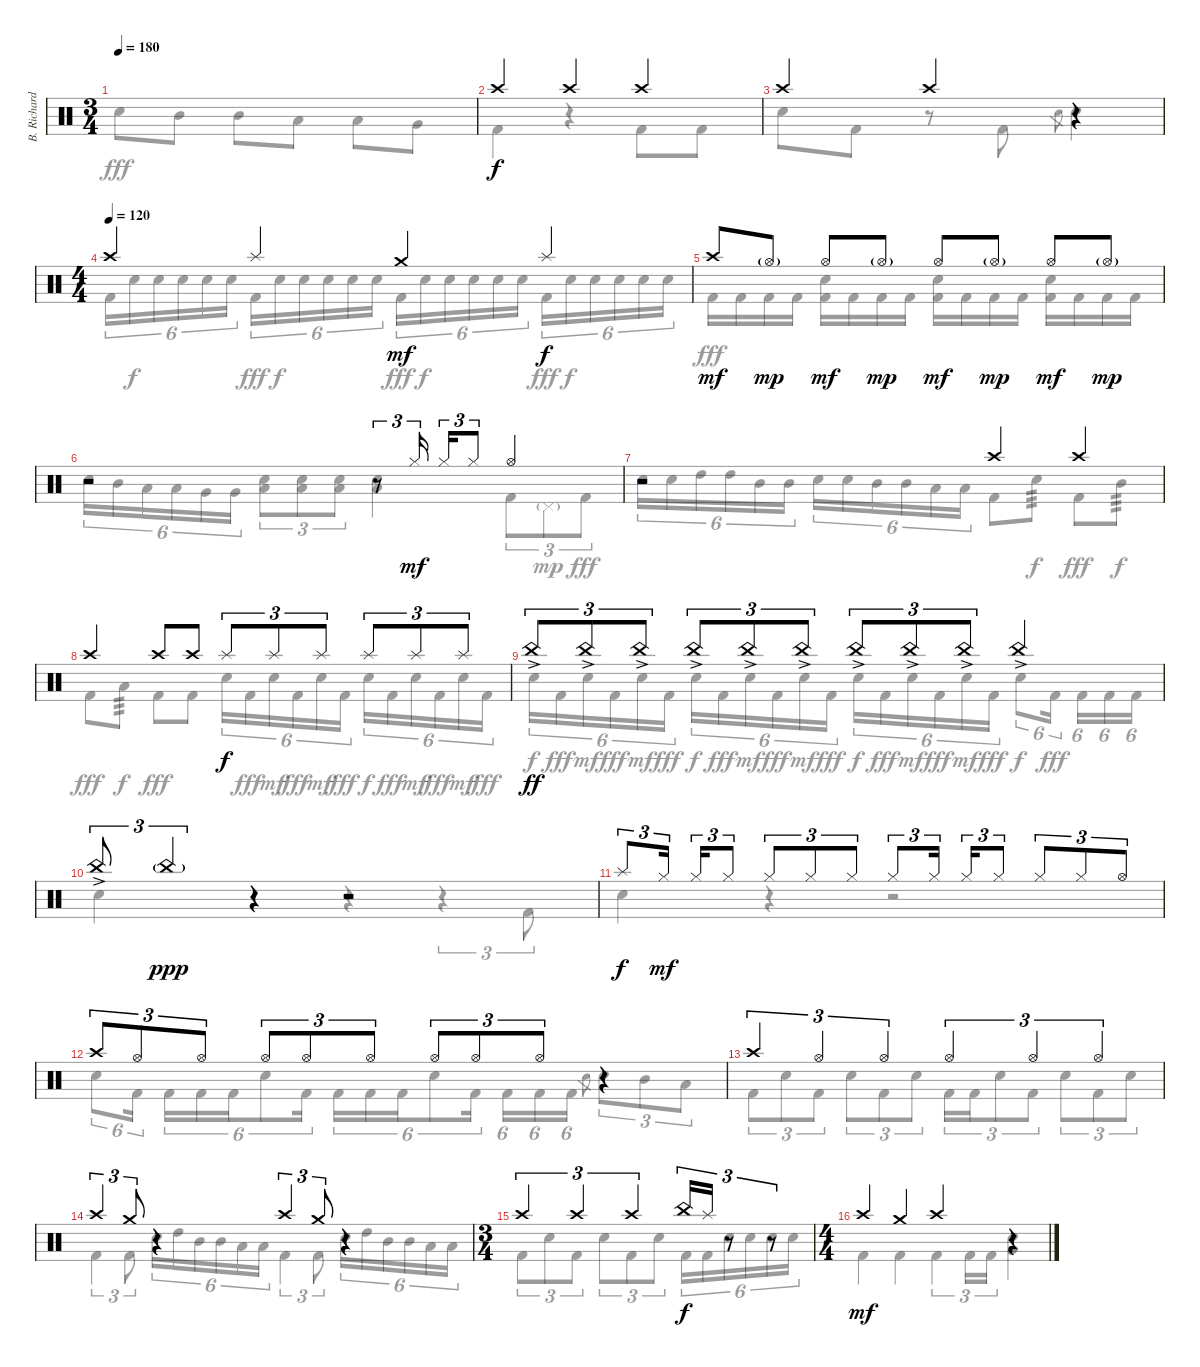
\track ("B. Richardson Drums" "B. Richard") {instrument percussion}
\staff {score}
\articulation defaults
\voice
\ts (3 4)
\tempo 180
\clef neutral
\ks c
|
"Crash high (hit)".4 "Crash high (hit)".4 "Crash high (hit)".4 |
"Crash high (hit)".4 "Crash high (hit)".4 r.4 |
\ts (4 4)
\tempo (120)
"Crash high (hit)".4 "Splash (hit)".4{dy f} "Crash medium (hit)".4{dy mf} "Splash (hit)".4{dy f} |
"Crash high (hit)".8{dy mf} "Hi-Hat (open)"{g}.8{dy mp} "Hi-Hat (open)".8{dy mf} "Hi-Hat (open)"{g}.8{dy mp} "Hi-Hat (open)".8{dy mf} "Hi-Hat (open)"{g}.8{dy mp} "Hi-Hat (open)".8{dy mf} "Hi-Hat (open)"{g}.8{dy mp} |
r.2 r.8{tu (3 2)} "Hi-Hat (closed)".16{tu (3 2) dy mf} "Hi-Hat (closed)".16{tu (3 2)} "Hi-Hat (closed)".8{tu (3 2)} "Hi-Hat (open)".4 |
r.2 "Crash high (hit)".4 "Crash high (hit)".4 |
"Crash high (hit)".4 "Crash high (hit)".8 "Crash high (hit)".8 "Splash (hit)".8{tu (3 2) dy f} "Splash (hit)".8{tu (3 2)} "Splash (hit)".8{tu (3 2)} "Splash (hit)".8{tu (3 2)} "Splash (hit)".8{tu (3 2)} "Splash (hit)".8{tu (3 2)} |
"China (hit)"{ac}.8{tu (3 2) dy ff} "China (hit)"{ac}.8{tu (3 2)} "China (hit)"{ac}.8{tu (3 2)} "China (hit)"{ac}.8{tu (3 2)} "China (hit)"{ac}.8{tu (3 2)} "China (hit)"{ac}.8{tu (3 2)} "China (hit)"{ac}.8{tu (3 2)} "China (hit)"{ac}.8{tu (3 2)} "China (hit)"{ac}.8{tu (3 2)} "China (hit)"{ac}.4 |
"China (hit)"{ac}.8{tu (3 2)} "China (hit)"{g}.4{tu (3 2) dy ppp} r.4 r.2 |
"Splash (hit)".8{tu (3 2) dy f} "Hi-Hat (closed)".16{tu (3 2) dy mf} "Hi-Hat (closed)".16{tu (3 2)} "Hi-Hat (closed)".8{tu (3 2)} "Hi-Hat (closed)".8{tu (3 2)} "Hi-Hat (closed)".8{tu (3 2)} "Hi-Hat (closed)".8{tu (3 2)} "Hi-Hat (closed)".8{tu (3 2)} "Hi-Hat (closed)".16{tu (3 2)} "Hi-Hat (closed)".16{tu (3 2)} "Hi-Hat (closed)".8{tu (3 2)} "Hi-Hat (closed)".8{tu (3 2)} "Hi-Hat (closed)".8{tu (3 2)} "Hi-Hat (open)".8{tu (3 2)} |
"Crash high (hit)".8{tu (3 2)} "Hi-Hat (open)".8{tu (3 2)} "Hi-Hat (open)".8{tu (3 2)} "Hi-Hat (open)".8{tu (3 2)} "Hi-Hat (open)".8{tu (3 2)} "Hi-Hat (open)".8{tu (3 2)} "Hi-Hat (open)".8{tu (3 2)} "Hi-Hat (open)".8{tu (3 2)} "Hi-Hat (open)".8{tu (3 2)} r.4 |
"Crash high (hit)".4{tu (3 2)} "Hi-Hat (open)".4{tu (3 2)} "Hi-Hat (open)".4{tu (3 2)} "Hi-Hat (open)".4{tu (3 2)} "Hi-Hat (open)".4{tu (3 2)} "Hi-Hat (open)".4{tu (3 2)} |
"Crash high (hit)".4{tu (3 2)} "Crash medium (hit)".8{tu (3 2)} r.4 "Crash high (hit)".4{tu (3 2)} "Crash medium (hit)".8{tu (3 2)} r.4 |
\ts (3 4)
"Crash high (hit)".4{tu (3 2)} "Crash high (hit)".4{tu (3 2)} "Crash high (hit)".4{tu (3 2)} "China (hit)".16{tu (3 2) dy f} "Splash (hit)".16{tu (3 2)} r.8{tu (3 2)} r.8{tu (3 2)} |
\ts (4 4)
"Crash high (hit)".4{dy mf} "Crash medium (hit)".4 "Crash high (hit)".4 r.4
\voice
\clef neutral
\ottava regular
\simile none
\ks c "Electric Snare (hit)".8{dy fff} "Mid Tom (hit)".8 "Mid Tom (hit)".8 "Low Tom (hit)".8 "Low Tom (hit)".8 "Very Low Tom (hit)".8
|
"Kick (hit) 2".4 r.4 "Kick (hit) 2".8 "Kick (hit) 2".8 |
"Electric Snare (hit)".8 "Kick (hit) 2".8 r.8 "Kick (hit) 2".8 "Electric Snare (hit)".8{gr} "Electric Snare (hit)".4 |
"Kick (hit) 2".16{tu (6 4)} "Electric Snare (hit)".16{tu (6 4) dy f} "Electric Snare (hit)".16{tu (6 4)} "Electric Snare (hit)".16{tu (6 4)} "Electric Snare (hit)".16{tu (6 4)} "Electric Snare (hit)".16{tu (6 4)} "Kick (hit) 2".16{tu (6 4) dy fff} "Electric Snare (hit)".16{tu (6 4) dy f} "Electric Snare (hit)".16{tu (6 4)} "Electric Snare (hit)".16{tu (6 4)} "Electric Snare (hit)".16{tu (6 4)} "Electric Snare (hit)".16{tu (6 4)} "Kick (hit) 2".16{tu (6 4) dy fff} "Electric Snare (hit)".16{tu (6 4) dy f} "Electric Snare (hit)".16{tu (6 4)} "Electric Snare (hit)".16{tu (6 4)} "Electric Snare (hit)".16{tu (6 4)} "Electric Snare (hit)".16{tu (6 4)} "Kick (hit) 2".16{tu (6 4) dy fff} "Electric Snare (hit)".16{tu (6 4) dy f} "Electric Snare (hit)".16{tu (6 4)} "Electric Snare (hit)".16{tu (6 4)} "Electric Snare (hit)".16{tu (6 4)} "Electric Snare (hit)".16{tu (6 4)} |
"Kick (hit) 2".16{dy fff} "Kick (hit) 2".16 "Kick (hit) 2".16 "Kick (hit) 2".16 ("Electric Snare (hit)" "Kick (hit) 2").16 "Kick (hit) 2".16 "Kick (hit) 2".16 "Kick (hit) 2".16 ("Electric Snare (hit)" "Kick (hit) 2").16 "Kick (hit) 2".16 "Kick (hit) 2".16 "Kick (hit) 2".16 ("Electric Snare (hit)" "Kick (hit) 2").16 "Kick (hit) 2".16 "Kick (hit) 2".16 "Kick (hit) 2".16 |
"Electric Snare (hit)".16{tu (6 4)} "Mid Tom (hit)".16{tu (6 4)} "Low Tom (hit)".16{tu (6 4)} "Low Tom (hit)".16{tu (6 4)} "Very Low Tom (hit)".16{tu (6 4)} "Very Low Tom (hit)".16{tu (6 4)} ("Electric Snare (hit)" "Low Tom (hit)").8{tu (3 2)} ("Electric Snare (hit)" "Low Tom (hit)").8{tu (3 2)} ("Electric Snare (hit)" "Low Tom (hit)").8{tu (3 2)} ("Electric Snare (hit)" "Low Tom (hit)").4 "Kick (hit) 2".8{tu (3 2)} "Pedal Hi-Hat (hit)"{g}.8{tu (3 2) dy mp} "Kick (hit) 2".8{tu (3 2) dy fff} |
"Electric Snare (hit)".16{tu (6 4)} "Electric Snare (hit)".16{tu (6 4)} "High Tom (hit)".16{tu (6 4)} "High Tom (hit)".16{tu (6 4)} "Mid Tom (hit)".16{tu (6 4)} "Mid Tom (hit)".16{tu (6 4)} "Electric Snare (hit)".16{tu (6 4)} "Electric Snare (hit)".16{tu (6 4)} "Mid Tom (hit)".16{tu (6 4)} "Mid Tom (hit)".16{tu (6 4)} "Low Tom (hit)".16{tu (6 4)} "Low Tom (hit)".16{tu (6 4)} "Kick (hit) 2".8 "Electric Snare (hit)".8{tp 3 dy f} "Kick (hit) 2".8{dy fff} "Mid Tom (hit)".8{tp 3 dy f} |
"Kick (hit) 2".8{dy fff} "Low Tom (hit)".8{tp 3 dy f} "Kick (hit) 2".8{dy fff} "Kick (hit) 2".8 "Electric Snare (hit)".16{tu (6 4) dy f} "Kick (hit) 2".16{tu (6 4) dy fff} "Electric Snare (hit)".16{tu (6 4) dy mf} "Kick (hit) 2".16{tu (6 4) dy fff} "Electric Snare (hit)".16{tu (6 4) dy mf} "Kick (hit) 2".16{tu (6 4) dy fff} "Electric Snare (hit)".16{tu (6 4) dy f} "Kick (hit) 2".16{tu (6 4) dy fff} "Electric Snare (hit)".16{tu (6 4) dy mf} "Kick (hit) 2".16{tu (6 4) dy fff} "Electric Snare (hit)".16{tu (6 4) dy mf} "Kick (hit) 2".16{tu (6 4) dy fff} |
"Electric Snare (hit)".16{tu (6 4) dy f} "Kick (hit) 2".16{tu (6 4) dy fff} "Electric Snare (hit)".16{tu (6 4) dy mf} "Kick (hit) 2".16{tu (6 4) dy fff} "Electric Snare (hit)".16{tu (6 4) dy mf} "Kick (hit) 2".16{tu (6 4) dy fff} "Electric Snare (hit)".16{tu (6 4) dy f} "Kick (hit) 2".16{tu (6 4) dy fff} "Electric Snare (hit)".16{tu (6 4) dy mf} "Kick (hit) 2".16{tu (6 4) dy fff} "Electric Snare (hit)".16{tu (6 4) dy mf} "Kick (hit) 2".16{tu (6 4) dy fff} "Electric Snare (hit)".16{tu (6 4) dy f} "Kick (hit) 2".16{tu (6 4) dy fff} "Electric Snare (hit)".16{tu (6 4) dy mf} "Kick (hit) 2".16{tu (6 4) dy fff} "Electric Snare (hit)".16{tu (6 4) dy mf} "Kick (hit) 2".16{tu (6 4) dy fff} "Electric Snare (hit)".8{tu (6 4) dy f} "Kick (hit) 2".16{tu (6 4) dy fff} "Kick (hit) 2".16{tu (6 4)} "Kick (hit) 2".16{tu (6 4)} "Kick (hit) 2".16{tu (6 4)} |
"Electric Snare (hit)".4 r.4 r.4 r.4{tu (3 2)} "Kick (hit) 2".8{tu (3 2)} |
"Electric Snare (hit)".4 r.4 r.2 |
"Electric Snare (hit)".8{tu (6 4)} "Kick (hit) 2".16{tu (6 4)} "Kick (hit) 2".16{tu (6 4)} "Kick (hit) 2".16{tu (6 4)} "Kick (hit) 2".16{tu (6 4)} "Electric Snare (hit)".8{tu (6 4)} "Kick (hit) 2".16{tu (6 4)} "Kick (hit) 2".16{tu (6 4)} "Kick (hit) 2".16{tu (6 4)} "Kick (hit) 2".16{tu (6 4)} "Electric Snare (hit)".8{tu (6 4)} "Kick (hit) 2".16{tu (6 4)} "Kick (hit) 2".16{tu (6 4)} "Kick (hit) 2".16{tu (6 4)} "Kick (hit) 2".16{tu (6 4)} "Electric Snare (hit)".8{gr} "Electric Snare (hit)".8{tu (3 2)} "Mid Tom (hit)".8{tu (3 2)} "Low Tom (hit)".8{tu (3 2)} |
"Kick (hit) 2".8{tu (3 2)} "Electric Snare (hit)".8{tu (3 2)} "Kick (hit) 2".8{tu (3 2)} "Electric Snare (hit)".8{tu (3 2)} "Kick (hit) 2".8{tu (3 2)} "Electric Snare (hit)".8{tu (3 2)} "Kick (hit) 2".16{tu (3 2)} "Kick (hit) 2".16{tu (3 2)} "Electric Snare (hit)".8{tu (3 2)} "Kick (hit) 2".8{tu (3 2)} "Electric Snare (hit)".8{tu (3 2)} "Kick (hit) 2".8{tu (3 2)} "Electric Snare (hit)".8{tu (3 2)} |
"Kick (hit) 2".4{tu (3 2)} "Kick (hit) 2".8{tu (3 2)} "Electric Snare (hit)".16{tu (6 4)} "High Tom (hit)".16{tu (6 4)} "Mid Tom (hit)".16{tu (6 4)} "Mid Tom (hit)".16{tu (6 4)} "Low Tom (hit)".16{tu (6 4)} "Low Tom (hit)".16{tu (6 4)} "Kick (hit) 2".4{tu (3 2)} "Kick (hit) 2".8{tu (3 2)} "Electric Snare (hit)".16{tu (6 4)} "High Tom (hit)".16{tu (6 4)} "Mid Tom (hit)".16{tu (6 4)} "Mid Tom (hit)".16{tu (6 4)} "Low Tom (hit)".16{tu (6 4)} "Low Tom (hit)".16{tu (6 4)} |
"Kick (hit) 2".8{tu (3 2)} "Electric Snare (hit)".8{tu (3 2)} "Kick (hit) 2".8{tu (3 2)} "Electric Snare (hit)".8{tu (3 2)} "Kick (hit) 2".8{tu (3 2)} "Electric Snare (hit)".8{tu (3 2)} "Kick (hit) 2".16{tu (6 4)} "Kick (hit) 2".16{tu (6 4)} "Electric Snare (hit)".16{tu (6 4)} "Electric Snare (hit)".16{tu (6 4)} "Electric Snare (hit)".16{tu (6 4)} "Electric Snare (hit)".16{tu (6 4)} |
"Kick (hit) 2".4 "Kick (hit) 2".4 "Kick (hit) 2".4{tu (3 2)} "Kick (hit) 2".16{tu (3 2)} "Kick (hit) 2".16{tu (3 2)} ("Electric Snare (hit)" "Very Low Tom (hit)").4
